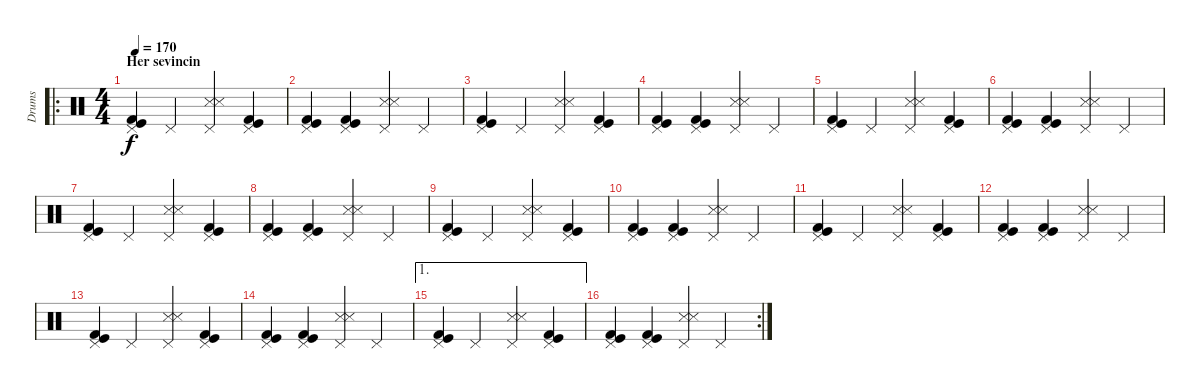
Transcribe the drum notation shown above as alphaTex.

\track ("Drums" "Drums") {instrument percussion}
\staff {score}
\articulation defaults
\ro
\ts (4 4)
\section ("" "Her sevincin")
\tempo 170
\clef neutral
\ks c
("Pedal Hi-Hat (hit)" "Kick (hit)" "Kick (hit) 2").4{dy f} "Pedal Hi-Hat (hit)".4 ("Pedal Hi-Hat (hit)" "Snare (side stick) 3" "Snare (side stick) 3").4 ("Pedal Hi-Hat (hit)" "Kick (hit)" "Kick (hit) 2").4 |
("Pedal Hi-Hat (hit)" "Kick (hit)" "Kick (hit) 2").4 ("Pedal Hi-Hat (hit)" "Kick (hit)" "Kick (hit) 2").4 ("Pedal Hi-Hat (hit)" "Snare (side stick) 3" "Snare (side stick) 3").4 "Pedal Hi-Hat (hit)".4 |
("Pedal Hi-Hat (hit)" "Kick (hit)" "Kick (hit) 2").4 "Pedal Hi-Hat (hit)".4 ("Pedal Hi-Hat (hit)" "Snare (side stick) 3" "Snare (side stick) 3").4 ("Pedal Hi-Hat (hit)" "Kick (hit)" "Kick (hit) 2").4 |
("Pedal Hi-Hat (hit)" "Kick (hit)" "Kick (hit) 2").4 ("Pedal Hi-Hat (hit)" "Kick (hit)" "Kick (hit) 2").4 ("Pedal Hi-Hat (hit)" "Snare (side stick) 3" "Snare (side stick) 3").4 "Pedal Hi-Hat (hit)".4 |
("Pedal Hi-Hat (hit)" "Kick (hit)" "Kick (hit) 2").4 "Pedal Hi-Hat (hit)".4 ("Pedal Hi-Hat (hit)" "Snare (side stick) 3" "Snare (side stick) 3").4 ("Pedal Hi-Hat (hit)" "Kick (hit)" "Kick (hit) 2").4 |
("Pedal Hi-Hat (hit)" "Kick (hit)" "Kick (hit) 2").4 ("Pedal Hi-Hat (hit)" "Kick (hit)" "Kick (hit) 2").4 ("Pedal Hi-Hat (hit)" "Snare (side stick) 3" "Snare (side stick) 3").4 "Pedal Hi-Hat (hit)".4 |
("Pedal Hi-Hat (hit)" "Kick (hit)" "Kick (hit) 2").4 "Pedal Hi-Hat (hit)".4 ("Pedal Hi-Hat (hit)" "Snare (side stick) 3" "Snare (side stick) 3").4 ("Pedal Hi-Hat (hit)" "Kick (hit)" "Kick (hit) 2").4 |
("Pedal Hi-Hat (hit)" "Kick (hit)" "Kick (hit) 2").4 ("Pedal Hi-Hat (hit)" "Kick (hit)" "Kick (hit) 2").4 ("Pedal Hi-Hat (hit)" "Snare (side stick) 3" "Snare (side stick) 3").4 "Pedal Hi-Hat (hit)".4 |
("Pedal Hi-Hat (hit)" "Kick (hit)" "Kick (hit) 2").4 "Pedal Hi-Hat (hit)".4 ("Pedal Hi-Hat (hit)" "Snare (side stick) 3" "Snare (side stick) 3").4 ("Pedal Hi-Hat (hit)" "Kick (hit)" "Kick (hit) 2").4 |
("Pedal Hi-Hat (hit)" "Kick (hit)" "Kick (hit) 2").4 ("Pedal Hi-Hat (hit)" "Kick (hit)" "Kick (hit) 2").4 ("Pedal Hi-Hat (hit)" "Snare (side stick) 3" "Snare (side stick) 3").4 "Pedal Hi-Hat (hit)".4 |
("Pedal Hi-Hat (hit)" "Kick (hit)" "Kick (hit) 2").4 "Pedal Hi-Hat (hit)".4 ("Pedal Hi-Hat (hit)" "Snare (side stick) 3" "Snare (side stick) 3").4 ("Pedal Hi-Hat (hit)" "Kick (hit)" "Kick (hit) 2").4 |
("Pedal Hi-Hat (hit)" "Kick (hit)" "Kick (hit) 2").4 ("Pedal Hi-Hat (hit)" "Kick (hit)" "Kick (hit) 2").4 ("Pedal Hi-Hat (hit)" "Snare (side stick) 3" "Snare (side stick) 3").4 "Pedal Hi-Hat (hit)".4 |
("Pedal Hi-Hat (hit)" "Kick (hit)" "Kick (hit) 2").4 "Pedal Hi-Hat (hit)".4 ("Pedal Hi-Hat (hit)" "Snare (side stick) 3" "Snare (side stick) 3").4 ("Pedal Hi-Hat (hit)" "Kick (hit)" "Kick (hit) 2").4 |
("Pedal Hi-Hat (hit)" "Kick (hit)" "Kick (hit) 2").4 ("Pedal Hi-Hat (hit)" "Kick (hit)" "Kick (hit) 2").4 ("Pedal Hi-Hat (hit)" "Snare (side stick) 3" "Snare (side stick) 3").4 "Pedal Hi-Hat (hit)".4 |
\ae 1
("Pedal Hi-Hat (hit)" "Kick (hit)" "Kick (hit) 2").4 "Pedal Hi-Hat (hit)".4 ("Pedal Hi-Hat (hit)" "Snare (side stick) 3" "Snare (side stick) 3").4 ("Pedal Hi-Hat (hit)" "Kick (hit)" "Kick (hit) 2").4 |
\rc 2
("Pedal Hi-Hat (hit)" "Kick (hit)" "Kick (hit) 2").4 ("Pedal Hi-Hat (hit)" "Kick (hit)" "Kick (hit) 2").4 ("Pedal Hi-Hat (hit)" "Snare (side stick) 3" "Snare (side stick) 3").4 "Pedal Hi-Hat (hit)".4
